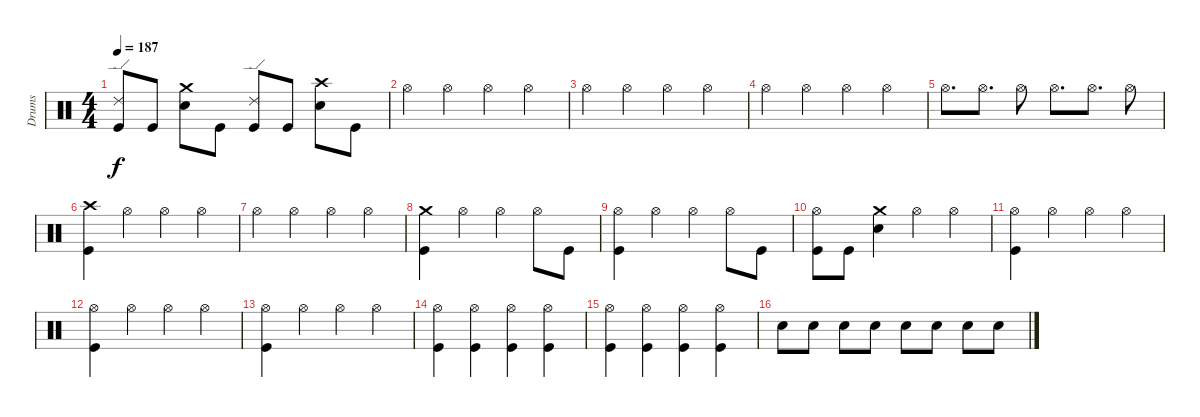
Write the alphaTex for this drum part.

\track ("Drums" "Drums") {instrument percussion}
\staff {score}
\articulation defaults
\ts (4 4)
\tempo 187
\clef neutral
\ks c
("Ride (edge) 2" "Kick (hit)").8{dy f} "Kick (hit)".8 ("Crash medium (hit)" "Snare (hit) 2").8 "Kick (hit)".8 ("Ride (edge) 2" "Kick (hit)").8 "Kick (hit)".8 ("Crash high (hit)" "Snare (hit) 2").8 "Kick (hit)".8 |
"Hi-Hat (open)".4 "Hi-Hat (open)".4 "Hi-Hat (open)".4 "Hi-Hat (open)".4 |
"Hi-Hat (open)".4 "Hi-Hat (open)".4 "Hi-Hat (open)".4 "Hi-Hat (open)".4 |
"Hi-Hat (open)".4 "Hi-Hat (open)".4 "Hi-Hat (open)".4 "Hi-Hat (open)".4 |
"Hi-Hat (open)".8{d} "Hi-Hat (open)".8{d} "Hi-Hat (open)".8 "Hi-Hat (open)".8{d} "Hi-Hat (open)".8{d} "Hi-Hat (open)".8 |
("Crash high (hit)" "Kick (hit)").4 "Hi-Hat (open)".4 "Hi-Hat (open)".4 "Hi-Hat (open)".4 |
"Hi-Hat (open)".4 "Hi-Hat (open)".4 "Hi-Hat (open)".4 "Hi-Hat (open)".4 |
("Crash medium (hit)" "Kick (hit)").4 "Hi-Hat (open)".4 "Hi-Hat (open)".4 "Hi-Hat (open)".8 "Kick (hit)".8 |
("Hi-Hat (open)" "Kick (hit)").4 "Hi-Hat (open)".4 "Hi-Hat (open)".4 "Hi-Hat (open)".8 "Kick (hit)".8 |
("Hi-Hat (open)" "Kick (hit)").8 "Kick (hit)".8 ("Crash medium (hit)" "Snare (hit) 2").4 "Hi-Hat (open)".4 "Hi-Hat (open)".4 |
("Hi-Hat (open)" "Kick (hit)").4 "Hi-Hat (open)".4 "Hi-Hat (open)".4 "Hi-Hat (open)".4 |
("Hi-Hat (open)" "Kick (hit)").4 "Hi-Hat (open)".4 "Hi-Hat (open)".4 "Hi-Hat (open)".4 |
("Hi-Hat (open)" "Kick (hit)").4 "Hi-Hat (open)".4 "Hi-Hat (open)".4 "Hi-Hat (open)".4 |
("Hi-Hat (open)" "Kick (hit)").4 ("Hi-Hat (open)" "Kick (hit)").4 ("Hi-Hat (open)" "Kick (hit)").4 ("Hi-Hat (open)" "Kick (hit)").4 |
("Hi-Hat (open)" "Kick (hit)").4 ("Hi-Hat (open)" "Kick (hit)").4 ("Hi-Hat (open)" "Kick (hit)").4 ("Hi-Hat (open)" "Kick (hit)").4 |
"Snare (hit) 2".8 "Snare (hit) 2".8 "Snare (hit) 2".8 "Snare (hit) 2".8 "Snare (hit) 2".8 "Snare (hit) 2".8 "Snare (hit) 2".8 "Snare (hit) 2".8
